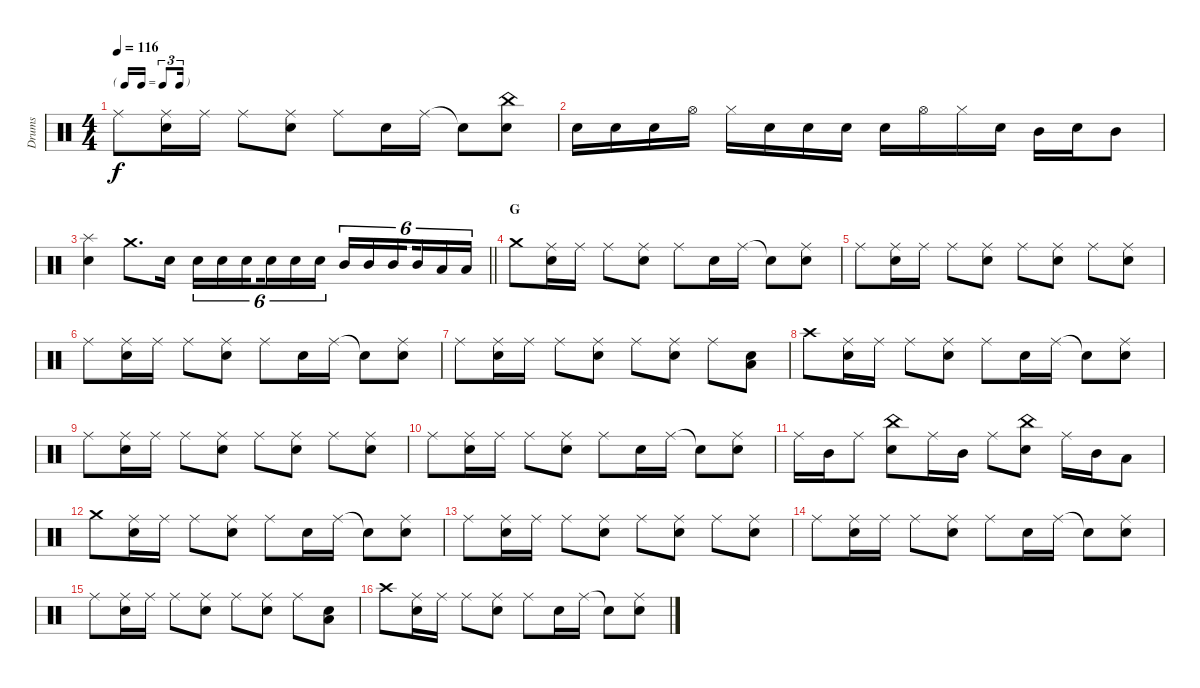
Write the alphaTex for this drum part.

\track ("Drums" "Drums") {instrument percussion}
\staff {score}
\articulation defaults
\ts (4 4)
\tf triplet16th
\tempo 116
\clef neutral
\ks c "Ride (middle)".8{dy f}
("Ride (middle)" "Snare (hit) 2").16 "Ride (middle)".16 "Ride (middle)".8 ("Ride (middle)" "Snare (hit) 2").8 "Ride (middle)".8 "Snare (hit) 2".16 "Ride (middle)".16 "Snare (hit)"{t}.8 ("China (hit)" "Snare (hit) 2").8 |
"Snare (hit) 2".16 "Snare (hit) 2".16 "Snare (hit) 2".16 "Hi-Hat (open)".16 "Hi-Hat (closed)".16 "Snare (hit) 2".16 "Snare (hit) 2".16 "Snare (hit) 2".16 "Snare (hit) 2".16 "Hi-Hat (open)".16 "Hi-Hat (closed)".16 "Snare (hit) 2".16 "Mid Tom (hit)".16 "Snare (hit) 2".16 "Mid Tom (hit)".8 |
\barLineRight lightlight
("Splash (hit)" "Snare (hit) 2").4 "Crash medium (hit)".8{d} "Snare (hit) 2".16 "Snare (hit) 2".16{tu (6 4)} "Snare (hit) 2".16{tu (6 4)} "Snare (hit) 2".16{tu (6 4) beam splitsecondary} "Snare (hit) 2".16{tu (6 4)} "Snare (hit) 2".16{tu (6 4)} "Snare (hit) 2".16{tu (6 4)} "Mid Tom (hit)".16{tu (6 4)} "Mid Tom (hit)".16{tu (6 4)} "Mid Tom (hit)".16{tu (6 4) beam splitsecondary} "Mid Tom (hit)".16{tu (6 4)} "Low Tom (hit)".16{tu (6 4)} "Low Tom (hit)".16{tu (6 4)} |
\section ("" "G")
"Crash medium (hit)".8 ("Ride (middle)" "Snare (hit) 2").16 "Ride (middle)".16 "Ride (middle)".8 ("Ride (middle)" "Snare (hit) 2").8 "Ride (middle)".8 "Snare (hit) 2".16 "Ride (middle)".16 "Snare (hit)"{t}.8 ("Ride (middle)" "Snare (hit) 2").8 |
"Ride (middle)".8 ("Ride (middle)" "Snare (hit) 2").16 "Ride (middle)".16 "Ride (middle)".8 ("Ride (middle)" "Snare (hit) 2").8 "Ride (middle)".8 ("Ride (middle)" "Snare (hit) 2").8 "Ride (middle)".8 ("Ride (middle)" "Snare (hit) 2").8 |
"Ride (middle)".8 ("Ride (middle)" "Snare (hit) 2").16 "Ride (middle)".16 "Ride (middle)".8 ("Ride (middle)" "Snare (hit) 2").8 "Ride (middle)".8 "Snare (hit) 2".16 "Ride (middle)".16 "Snare (hit)"{t}.8 ("Ride (middle)" "Snare (hit) 2").8 |
"Ride (middle)".8 ("Ride (middle)" "Snare (hit) 2").16 "Ride (middle)".16 "Ride (middle)".8 ("Ride (middle)" "Snare (hit) 2").8 "Ride (middle)".8 ("Ride (middle)" "Snare (hit) 2").8 "Ride (middle)".8 ("Low Tom (hit)" "Snare (hit) 2").8 |
"Crash high (hit)".8 ("Ride (middle)" "Snare (hit) 2").16 "Ride (middle)".16 "Ride (middle)".8 ("Ride (middle)" "Snare (hit) 2").8 "Ride (middle)".8 "Snare (hit) 2".16 "Ride (middle)".16 "Snare (hit)"{t}.8 ("Ride (middle)" "Snare (hit) 2").8 |
"Ride (middle)".8 ("Ride (middle)" "Snare (hit) 2").16 "Ride (middle)".16 "Ride (middle)".8 ("Ride (middle)" "Snare (hit) 2").8 "Ride (middle)".8 ("Ride (middle)" "Snare (hit) 2").8 "Ride (middle)".8 ("Ride (middle)" "Snare (hit) 2").8 |
"Ride (middle)".8 ("Ride (middle)" "Snare (hit) 2").16 "Ride (middle)".16 "Ride (middle)".8 ("Ride (middle)" "Snare (hit) 2").8 "Ride (middle)".8 "Snare (hit) 2".16 "Ride (middle)".16 "Snare (hit)"{t}.8 ("Ride (middle)" "Snare (hit) 2").8 |
"Ride (middle)".16 "Mid Tom (hit)".16 "Ride (middle)".8 ("China (hit)" "Snare (hit) 2").8 "Ride (middle)".16 "Mid Tom (hit)".16 "Ride (middle)".8 ("China (hit)" "Snare (hit) 2").8 "Ride (middle)".16 "Mid Tom (hit)".16 "Low Tom (hit)".8 |
"Crash medium (hit)".8 ("Ride (middle)" "Snare (hit) 2").16 "Ride (middle)".16 "Ride (middle)".8 ("Ride (middle)" "Snare (hit) 2").8 "Ride (middle)".8 "Snare (hit) 2".16 "Ride (middle)".16 "Snare (hit)"{t}.8 ("Ride (middle)" "Snare (hit) 2").8 |
"Ride (middle)".8 ("Ride (middle)" "Snare (hit) 2").16 "Ride (middle)".16 "Ride (middle)".8 ("Ride (middle)" "Snare (hit) 2").8 "Ride (middle)".8 ("Ride (middle)" "Snare (hit) 2").8 "Ride (middle)".8 ("Ride (middle)" "Snare (hit) 2").8 |
"Ride (middle)".8 ("Ride (middle)" "Snare (hit) 2").16 "Ride (middle)".16 "Ride (middle)".8 ("Ride (middle)" "Snare (hit) 2").8 "Ride (middle)".8 "Snare (hit) 2".16 "Ride (middle)".16 "Snare (hit)"{t}.8 ("Ride (middle)" "Snare (hit) 2").8 |
"Ride (middle)".8 ("Ride (middle)" "Snare (hit) 2").16 "Ride (middle)".16 "Ride (middle)".8 ("Ride (middle)" "Snare (hit) 2").8 "Ride (middle)".8 ("Ride (middle)" "Snare (hit) 2").8 "Ride (middle)".8 ("Low Tom (hit)" "Snare (hit) 2").8 |
"Crash high (hit)".8 ("Ride (middle)" "Snare (hit) 2").16 "Ride (middle)".16 "Ride (middle)".8 ("Ride (middle)" "Snare (hit) 2").8 "Ride (middle)".8 "Snare (hit) 2".16 "Ride (middle)".16 "Snare (hit)"{t}.8 ("Ride (middle)" "Snare (hit) 2").8
